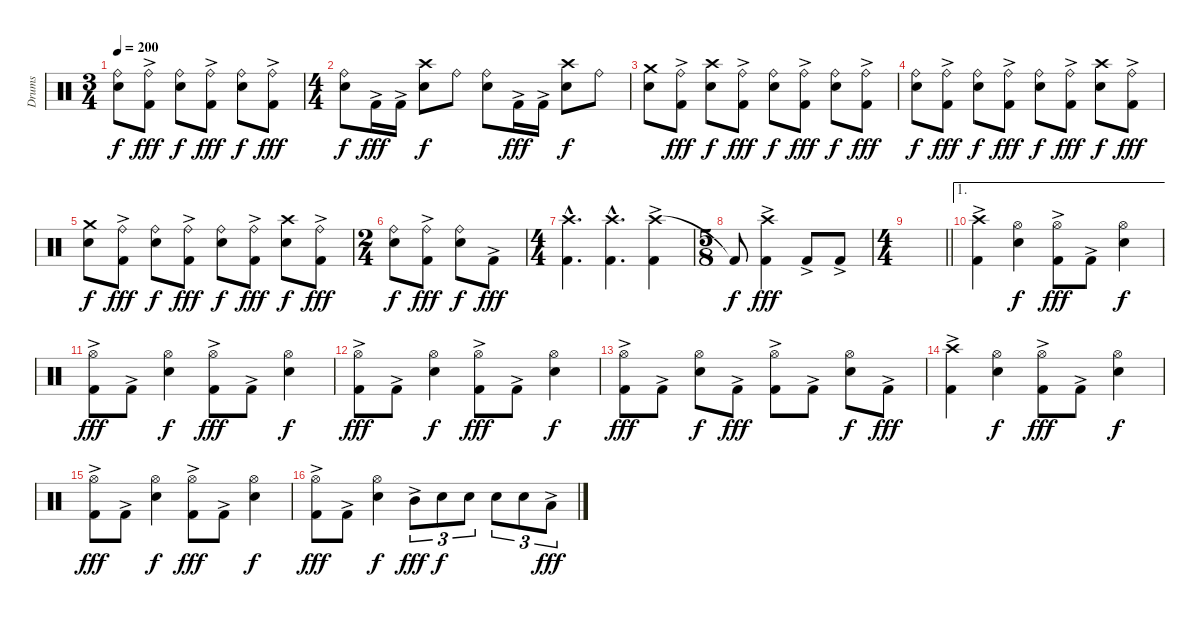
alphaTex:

\track ("Drums" "Drums") {instrument percussion}
\staff {score}
\articulation defaults
\ts (3 4)
\tempo 200
\clef neutral
\ks c
("Ride (bell)" "Snare (hit) 2").8{dy f} ("Ride (bell)" "Kick (hit) 2"{ac}).8{dy fff} ("Ride (bell)" "Snare (hit) 2").8{dy f} ("Ride (bell)" "Kick (hit) 2"{ac}).8{dy fff} ("Ride (bell)" "Snare (hit) 2").8{dy f} ("Ride (bell)" "Kick (hit) 2"{ac}).8{dy fff} |
\ts (4 4)
("Ride (bell)" "Snare (hit) 2").8{dy f} "Kick (hit) 2"{ac}.16{dy fff} "Kick (hit) 2"{ac}.16 ("Crash high (hit)" "Snare (hit) 2").8{dy f} "Ride (bell)".8 ("Ride (bell)" "Snare (hit) 2").8 "Kick (hit) 2"{ac}.16{dy fff} "Kick (hit) 2"{ac}.16 ("Crash high (hit)" "Snare (hit) 2").8{dy f} "Ride (bell)".8 |
("Crash medium (hit)" "Snare (hit) 2").8 ("Ride (bell)" "Kick (hit) 2"{ac}).8{dy fff} ("Crash high (hit)" "Snare (hit) 2").8{dy f} ("Ride (bell)" "Kick (hit) 2"{ac}).8{dy fff} ("Ride (bell)" "Snare (hit) 2").8{dy f} ("Ride (bell)" "Kick (hit) 2"{ac}).8{dy fff} ("Ride (bell)" "Snare (hit) 2").8{dy f} ("Ride (bell)" "Kick (hit) 2"{ac}).8{dy fff} |
("Ride (bell)" "Snare (hit) 2").8{dy f} ("Ride (bell)" "Kick (hit) 2"{ac}).8{dy fff} ("Ride (bell)" "Snare (hit) 2").8{dy f} ("Ride (bell)" "Kick (hit) 2"{ac}).8{dy fff} ("Ride (bell)" "Snare (hit) 2").8{dy f} ("Ride (bell)" "Kick (hit) 2"{ac}).8{dy fff} ("Crash high (hit)" "Snare (hit) 2").8{dy f} ("Ride (bell)" "Kick (hit) 2"{ac}).8{dy fff} |
("Crash medium (hit)" "Snare (hit) 2").8{dy f} ("Ride (bell)" "Kick (hit) 2"{ac}).8{dy fff} ("Ride (bell)" "Snare (hit) 2").8{dy f} ("Ride (bell)" "Kick (hit) 2"{ac}).8{dy fff} ("Ride (bell)" "Snare (hit) 2").8{dy f} ("Ride (bell)" "Kick (hit) 2"{ac}).8{dy fff} ("Crash high (hit)" "Snare (hit) 2").8{dy f} ("Ride (bell)" "Kick (hit) 2"{ac}).8{dy fff} |
\ts (2 4)
("Ride (bell)" "Snare (hit) 2").8{dy f} ("Ride (bell)" "Kick (hit) 2"{ac}).8{dy fff} ("Ride (bell)" "Snare (hit) 2").8{dy f} "Kick (hit) 2"{ac}.8{dy fff} |
\ts (4 4)
("Crash high (hit)"{hac} "Kick (hit) 2"{hac}).4{d} ("Crash high (hit)"{hac} "Kick (hit) 2"{hac}).4{d} ("Crash high (hit)" "Kick (hit) 2"{ac}).4 |
\ts (5 8)
"Kick (hit) 2"{t}.8{dy f} ("Crash high (hit)" "Kick (hit) 2"{ac}).4{dy fff} "Kick (hit) 2"{ac}.8 "Kick (hit) 2"{ac}.8 |
\ts (4 4)
\barLineRight lightlight
|
\ae 1
("Crash high (hit)" "Kick (hit) 2"{ac}).4 ("Hi-Hat (open)" "Snare (hit) 2").4{dy f} ("Hi-Hat (open)" "Kick (hit) 2"{ac}).8{dy fff} "Kick (hit) 2"{ac}.8 ("Hi-Hat (open)" "Snare (hit) 2").4{dy f} |
("Hi-Hat (open)" "Kick (hit) 2"{ac}).8{dy fff} "Kick (hit) 2"{ac}.8 ("Hi-Hat (open)" "Snare (hit) 2").4{dy f} ("Hi-Hat (open)" "Kick (hit) 2"{ac}).8{dy fff} "Kick (hit) 2"{ac}.8 ("Hi-Hat (open)" "Snare (hit) 2").4{dy f} |
("Hi-Hat (open)" "Kick (hit) 2"{ac}).8{dy fff} "Kick (hit) 2"{ac}.8 ("Hi-Hat (open)" "Snare (hit) 2").4{dy f} ("Hi-Hat (open)" "Kick (hit) 2"{ac}).8{dy fff} "Kick (hit) 2"{ac}.8 ("Hi-Hat (open)" "Snare (hit) 2").4{dy f} |
("Hi-Hat (open)" "Kick (hit) 2"{ac}).8{dy fff} "Kick (hit) 2"{ac}.8 ("Hi-Hat (open)" "Snare (hit) 2").8{dy f} "Kick (hit) 2"{ac}.8{dy fff} ("Hi-Hat (open)" "Kick (hit) 2"{ac}).8 "Kick (hit) 2"{ac}.8 ("Hi-Hat (open)" "Snare (hit) 2").8{dy f} "Kick (hit) 2"{ac}.8{dy fff} |
("Crash high (hit)" "Kick (hit) 2"{ac}).4 ("Hi-Hat (open)" "Snare (hit) 2").4{dy f} ("Hi-Hat (open)" "Kick (hit) 2"{ac}).8{dy fff} "Kick (hit) 2"{ac}.8 ("Hi-Hat (open)" "Snare (hit) 2").4{dy f} |
("Hi-Hat (open)" "Kick (hit) 2"{ac}).8{dy fff} "Kick (hit) 2"{ac}.8 ("Hi-Hat (open)" "Snare (hit) 2").4{dy f} ("Hi-Hat (open)" "Kick (hit) 2"{ac}).8{dy fff} "Kick (hit) 2"{ac}.8 ("Hi-Hat (open)" "Snare (hit) 2").4{dy f} |
("Hi-Hat (open)" "Kick (hit) 2"{ac}).8{dy fff} "Kick (hit) 2"{ac}.8 ("Hi-Hat (open)" "Snare (hit) 2").4{dy f} "Mid Tom (hit)"{ac}.8{tu (3 2) dy fff} "Snare (hit) 2".8{tu (3 2) dy f} "Snare (hit) 2".8{tu (3 2)} "Snare (hit) 2".8{tu (3 2)} "Snare (hit) 2".8{tu (3 2)} "Low Tom (hit)"{ac}.8{tu (3 2) dy fff}
